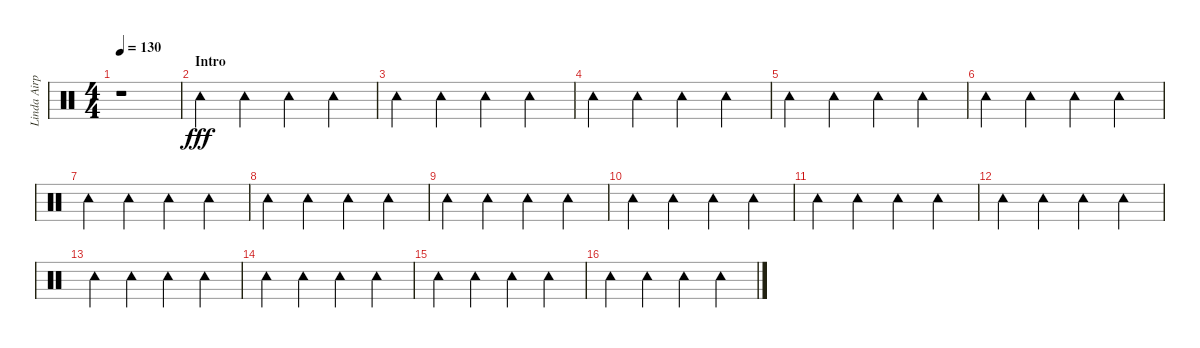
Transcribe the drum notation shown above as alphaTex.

\track ("Linda Airplane" "Linda Airp") {instrument percussion}
\staff {score}
\articulation defaults
\ts (4 4)
\tempo 130
\clef neutral
\ks c
r.1{dy fff} |
\section ("" "Intro")
"Tambourine (hit)".4 "Tambourine (hit)".4 "Tambourine (hit)".4 "Tambourine (hit)".4 |
"Tambourine (hit)".4 "Tambourine (hit)".4 "Tambourine (hit)".4 "Tambourine (hit)".4 |
"Tambourine (hit)".4 "Tambourine (hit)".4 "Tambourine (hit)".4 "Tambourine (hit)".4 |
"Tambourine (hit)".4 "Tambourine (hit)".4 "Tambourine (hit)".4 "Tambourine (hit)".4 |
"Tambourine (hit)".4 "Tambourine (hit)".4 "Tambourine (hit)".4 "Tambourine (hit)".4 |
"Tambourine (hit)".4 "Tambourine (hit)".4 "Tambourine (hit)".4 "Tambourine (hit)".4 |
"Tambourine (hit)".4 "Tambourine (hit)".4 "Tambourine (hit)".4 "Tambourine (hit)".4 |
"Tambourine (hit)".4 "Tambourine (hit)".4 "Tambourine (hit)".4 "Tambourine (hit)".4 |
"Tambourine (hit)".4 "Tambourine (hit)".4 "Tambourine (hit)".4 "Tambourine (hit)".4 |
"Tambourine (hit)".4 "Tambourine (hit)".4 "Tambourine (hit)".4 "Tambourine (hit)".4 |
"Tambourine (hit)".4 "Tambourine (hit)".4 "Tambourine (hit)".4 "Tambourine (hit)".4 |
"Tambourine (hit)".4 "Tambourine (hit)".4 "Tambourine (hit)".4 "Tambourine (hit)".4 |
"Tambourine (hit)".4 "Tambourine (hit)".4 "Tambourine (hit)".4 "Tambourine (hit)".4 |
"Tambourine (hit)".4 "Tambourine (hit)".4 "Tambourine (hit)".4 "Tambourine (hit)".4 |
"Tambourine (hit)".4 "Tambourine (hit)".4 "Tambourine (hit)".4 "Tambourine (hit)".4
